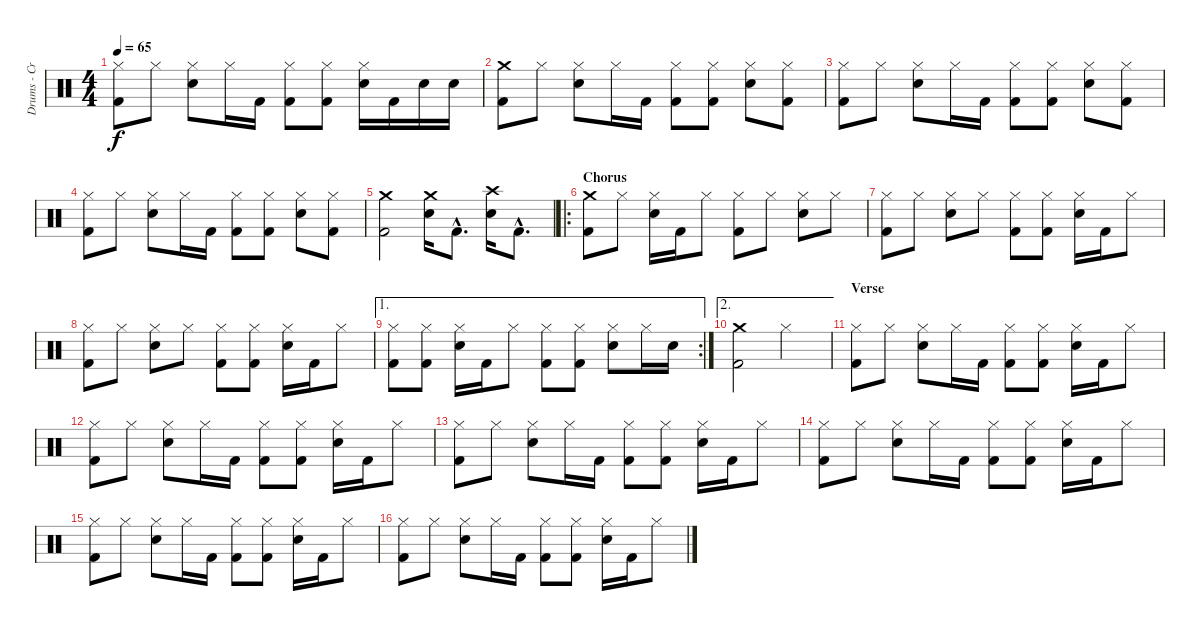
\track ("Drums - Craig" "Drums - Cr") {instrument percussion}
\staff {score}
\articulation defaults
\ts (4 4)
\tempo 65
\clef neutral
\ks c
("Hi-Hat (closed)" "Kick (hit) 2").8{dy f} "Hi-Hat (closed)".8 ("Hi-Hat (closed)" "Snare (hit) 2").8 "Hi-Hat (closed)".16 "Kick (hit) 2".16 ("Hi-Hat (closed)" "Kick (hit) 2").8 ("Hi-Hat (closed)" "Kick (hit) 2").8 ("Hi-Hat (closed)" "Snare (hit) 2").16 "Kick (hit) 2".16 "Snare (hit) 2".16 "Snare (hit) 2".16 |
("Crash medium (hit)" "Kick (hit) 2").8 "Hi-Hat (closed)".8 ("Hi-Hat (closed)" "Snare (hit) 2").8 "Hi-Hat (closed)".16 "Kick (hit) 2".16 ("Hi-Hat (closed)" "Kick (hit) 2").8 ("Hi-Hat (closed)" "Kick (hit) 2").8 ("Hi-Hat (closed)" "Snare (hit) 2").8 ("Hi-Hat (closed)" "Kick (hit) 2").8 |
("Hi-Hat (closed)" "Kick (hit) 2").8 "Hi-Hat (closed)".8 ("Hi-Hat (closed)" "Snare (hit) 2").8 "Hi-Hat (closed)".16 "Kick (hit) 2".16 ("Hi-Hat (closed)" "Kick (hit) 2").8 ("Hi-Hat (closed)" "Kick (hit) 2").8 ("Hi-Hat (closed)" "Snare (hit) 2").8 ("Hi-Hat (closed)" "Kick (hit) 2").8 |
("Hi-Hat (closed)" "Kick (hit) 2").8 "Hi-Hat (closed)".8 ("Hi-Hat (closed)" "Snare (hit) 2").8 "Hi-Hat (closed)".16 "Kick (hit) 2".16 ("Hi-Hat (closed)" "Kick (hit) 2").8 ("Hi-Hat (closed)" "Kick (hit) 2").8 ("Hi-Hat (closed)" "Snare (hit) 2").8 ("Hi-Hat (closed)" "Kick (hit) 2").8 |
("Crash medium (hit)" "Kick (hit) 2").2 ("Crash medium (hit)" "Snare (hit) 2").16 "Kick (hit) 2"{hac}.8{d} ("Crash high (hit)" "Snare (hit) 2").16 "Kick (hit) 2"{hac}.8{d} |
\ro
\section ("" "Chorus")
("Crash medium (hit)" "Kick (hit) 2").8 "Hi-Hat (closed)".8 ("Hi-Hat (closed)" "Snare (hit) 2").16 "Kick (hit) 2".16 "Hi-Hat (closed)".8 ("Hi-Hat (closed)" "Kick (hit) 2").8 "Hi-Hat (closed)".8 ("Hi-Hat (closed)" "Snare (hit) 2").8 "Hi-Hat (closed)".8 |
("Hi-Hat (closed)" "Kick (hit) 2").8 "Hi-Hat (closed)".8 ("Hi-Hat (closed)" "Snare (hit) 2").8 "Hi-Hat (closed)".8 ("Hi-Hat (closed)" "Kick (hit) 2").8 ("Hi-Hat (closed)" "Kick (hit) 2").8 ("Hi-Hat (closed)" "Snare (hit) 2").16 "Kick (hit) 2".16 "Hi-Hat (closed)".8 |
("Hi-Hat (closed)" "Kick (hit) 2").8 "Hi-Hat (closed)".8 ("Hi-Hat (closed)" "Snare (hit) 2").8 "Hi-Hat (closed)".8 ("Hi-Hat (closed)" "Kick (hit) 2").8 ("Hi-Hat (closed)" "Kick (hit) 2").8 ("Hi-Hat (closed)" "Snare (hit) 2").16 "Kick (hit) 2".16 "Hi-Hat (closed)".8 |
\ae 1
\rc 2
("Hi-Hat (closed)" "Kick (hit) 2").8 ("Hi-Hat (closed)" "Kick (hit) 2").8 ("Hi-Hat (closed)" "Snare (hit) 2").16 "Kick (hit) 2".16 "Hi-Hat (closed)".8 ("Hi-Hat (closed)" "Kick (hit) 2").8 ("Hi-Hat (closed)" "Kick (hit) 2").8 ("Hi-Hat (closed)" "Snare (hit) 2").8 "Hi-Hat (closed)".16 "Snare (hit) 2".16 |
\ae 2
("Crash medium (hit)" "Kick (hit) 2").2 "Hi-Hat (closed)".2 |
\section ("" "Verse")
("Hi-Hat (closed)" "Kick (hit) 2").8 "Hi-Hat (closed)".8 ("Hi-Hat (closed)" "Snare (hit) 2").8 "Hi-Hat (closed)".16 "Kick (hit) 2".16 ("Hi-Hat (closed)" "Kick (hit) 2").8 ("Hi-Hat (closed)" "Kick (hit) 2").8 ("Hi-Hat (closed)" "Snare (hit) 2").16 "Kick (hit) 2".16 "Hi-Hat (closed)".8 |
("Hi-Hat (closed)" "Kick (hit) 2").8 "Hi-Hat (closed)".8 ("Hi-Hat (closed)" "Snare (hit) 2").8 "Hi-Hat (closed)".16 "Kick (hit) 2".16 ("Hi-Hat (closed)" "Kick (hit) 2").8 ("Hi-Hat (closed)" "Kick (hit) 2").8 ("Hi-Hat (closed)" "Snare (hit) 2").16 "Kick (hit) 2".16 "Hi-Hat (closed)".8 |
("Hi-Hat (closed)" "Kick (hit) 2").8 "Hi-Hat (closed)".8 ("Hi-Hat (closed)" "Snare (hit) 2").8 "Hi-Hat (closed)".16 "Kick (hit) 2".16 ("Hi-Hat (closed)" "Kick (hit) 2").8 ("Hi-Hat (closed)" "Kick (hit) 2").8 ("Hi-Hat (closed)" "Snare (hit) 2").16 "Kick (hit) 2".16 "Hi-Hat (closed)".8 |
("Hi-Hat (closed)" "Kick (hit) 2").8 "Hi-Hat (closed)".8 ("Hi-Hat (closed)" "Snare (hit) 2").8 "Hi-Hat (closed)".16 "Kick (hit) 2".16 ("Hi-Hat (closed)" "Kick (hit) 2").8 ("Hi-Hat (closed)" "Kick (hit) 2").8 ("Hi-Hat (closed)" "Snare (hit) 2").16 "Kick (hit) 2".16 "Hi-Hat (closed)".8 |
("Hi-Hat (closed)" "Kick (hit) 2").8 "Hi-Hat (closed)".8 ("Hi-Hat (closed)" "Snare (hit) 2").8 "Hi-Hat (closed)".16 "Kick (hit) 2".16 ("Hi-Hat (closed)" "Kick (hit) 2").8 ("Hi-Hat (closed)" "Kick (hit) 2").8 ("Hi-Hat (closed)" "Snare (hit) 2").16 "Kick (hit) 2".16 "Hi-Hat (closed)".8 |
("Hi-Hat (closed)" "Kick (hit) 2").8 "Hi-Hat (closed)".8 ("Hi-Hat (closed)" "Snare (hit) 2").8 "Hi-Hat (closed)".16 "Kick (hit) 2".16 ("Hi-Hat (closed)" "Kick (hit) 2").8 ("Hi-Hat (closed)" "Kick (hit) 2").8 ("Hi-Hat (closed)" "Snare (hit) 2").16 "Kick (hit) 2".16 "Hi-Hat (closed)".8
